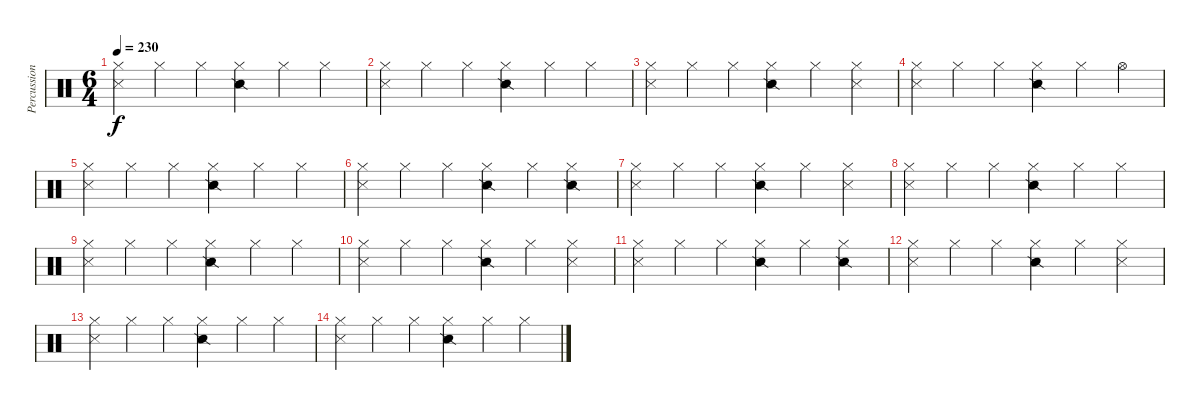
\track ("Percussions" "Percussion") {instrument percussion}
\staff {score}
\articulation defaults
\ts (6 4)
\tempo 230
\clef neutral
\ks c
("Hi-Hat (closed)" "Metronome (hit)").4{dy f} "Hi-Hat (closed)".4 "Hi-Hat (closed)".4 ("Hi-Hat (closed)" "Snare (side stick) 2").4 "Hi-Hat (closed)".4 "Hi-Hat (closed)".4 |
("Hi-Hat (closed)" "Metronome (hit)").4 "Hi-Hat (closed)".4 "Hi-Hat (closed)".4 ("Hi-Hat (closed)" "Snare (side stick) 2").4 "Hi-Hat (closed)".4 "Hi-Hat (closed)".4 |
("Hi-Hat (closed)" "Metronome (hit)").4 "Hi-Hat (closed)".4 "Hi-Hat (closed)".4 ("Hi-Hat (closed)" "Snare (side stick) 2").4 "Hi-Hat (closed)".4 ("Hi-Hat (closed)" "Metronome (hit)").4 |
("Hi-Hat (closed)" "Metronome (hit)").4 "Hi-Hat (closed)".4 "Hi-Hat (closed)".4 ("Hi-Hat (closed)" "Snare (side stick) 2").4 "Hi-Hat (closed)".4 "Hi-Hat (open)".4 |
("Hi-Hat (closed)" "Metronome (hit)").4 "Hi-Hat (closed)".4 "Hi-Hat (closed)".4 ("Hi-Hat (closed)" "Snare (side stick) 2").4 "Hi-Hat (closed)".4 "Hi-Hat (closed)".4 |
("Hi-Hat (closed)" "Metronome (hit)").4 "Hi-Hat (closed)".4 "Hi-Hat (closed)".4 ("Hi-Hat (closed)" "Snare (side stick) 2").4 "Hi-Hat (closed)".4 ("Hi-Hat (closed)" "Snare (side stick) 2").4 |
("Hi-Hat (closed)" "Metronome (hit)").4 "Hi-Hat (closed)".4 "Hi-Hat (closed)".4 ("Hi-Hat (closed)" "Snare (side stick) 2").4 "Hi-Hat (closed)".4 ("Hi-Hat (closed)" "Metronome (hit)").4 |
("Hi-Hat (closed)" "Metronome (hit)").4 "Hi-Hat (closed)".4 "Hi-Hat (closed)".4 ("Hi-Hat (closed)" "Snare (side stick) 2").4 "Hi-Hat (closed)".4 "Hi-Hat (closed)".4 |
("Hi-Hat (closed)" "Metronome (hit)").4 "Hi-Hat (closed)".4 "Hi-Hat (closed)".4 ("Hi-Hat (closed)" "Snare (side stick) 2").4 "Hi-Hat (closed)".4 "Hi-Hat (closed)".4 |
("Hi-Hat (closed)" "Metronome (hit)").4 "Hi-Hat (closed)".4 "Hi-Hat (closed)".4 ("Hi-Hat (closed)" "Snare (side stick) 2").4 "Hi-Hat (closed)".4 ("Hi-Hat (closed)" "Metronome (hit)").4 |
("Hi-Hat (closed)" "Metronome (hit)").4 "Hi-Hat (closed)".4 "Hi-Hat (closed)".4 ("Hi-Hat (closed)" "Snare (side stick) 2").4 "Hi-Hat (closed)".4 ("Hi-Hat (closed)" "Snare (side stick) 2").4 |
("Hi-Hat (closed)" "Metronome (hit)").4 "Hi-Hat (closed)".4 "Hi-Hat (closed)".4 ("Hi-Hat (closed)" "Snare (side stick) 2").4 "Hi-Hat (closed)".4 ("Hi-Hat (closed)" "Metronome (hit)").4 |
("Hi-Hat (closed)" "Metronome (hit)").4 "Hi-Hat (closed)".4 "Hi-Hat (closed)".4 ("Hi-Hat (closed)" "Snare (side stick) 2").4 "Hi-Hat (closed)".4 "Hi-Hat (closed)".4 |
("Hi-Hat (closed)" "Metronome (hit)").4 "Hi-Hat (closed)".4 "Hi-Hat (closed)".4 ("Hi-Hat (closed)" "Snare (side stick) 2").4 "Hi-Hat (closed)".4 "Hi-Hat (closed)".4
